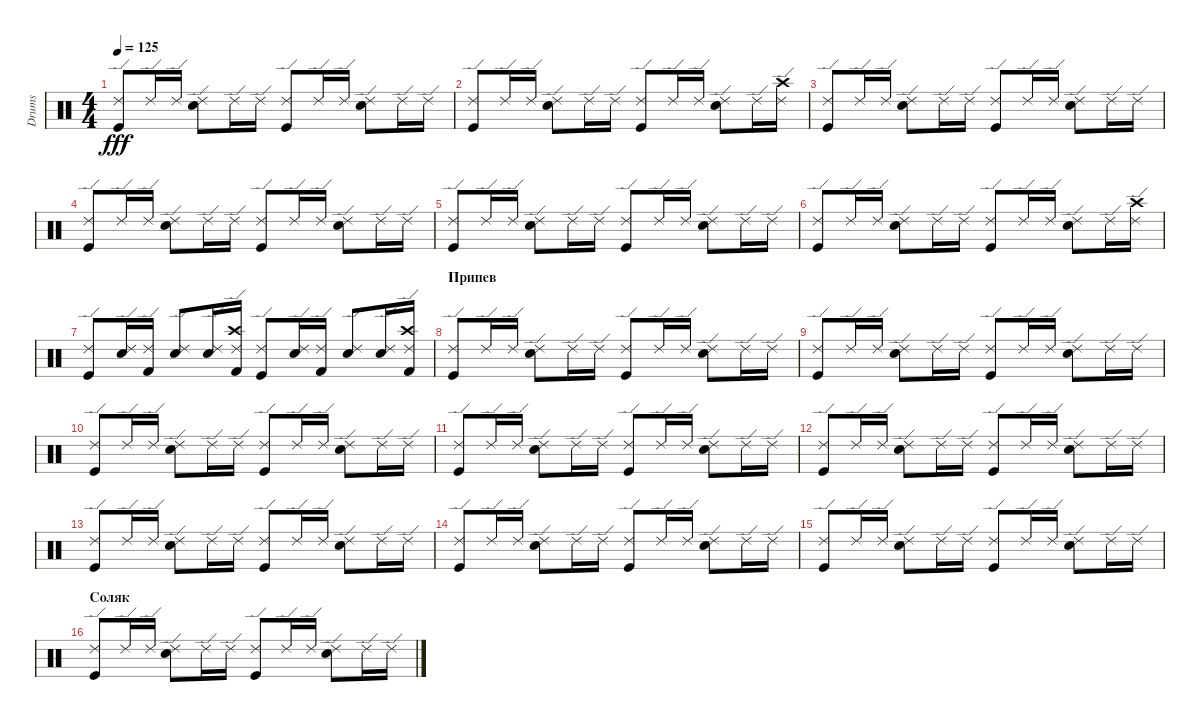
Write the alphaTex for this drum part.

\track ("Drums" "Drums") {instrument percussion}
\staff {score}
\articulation defaults
\ts (4 4)
\tempo 125
\clef neutral
\ks c
("Ride (edge) 2" "Kick (hit)").8{dy fff} "Ride (edge) 2".16 "Ride (edge) 2".16 ("Ride (edge) 2" "Snare (hit) 2").8 "Ride (edge) 2".16 "Ride (edge) 2".16 ("Ride (edge) 2" "Kick (hit)").8 "Ride (edge) 2".16 "Ride (edge) 2".16 ("Ride (edge) 2" "Snare (hit) 2").8 "Ride (edge) 2".16 "Ride (edge) 2".16 |
("Ride (edge) 2" "Kick (hit)").8 "Ride (edge) 2".16 "Ride (edge) 2".16 ("Ride (edge) 2" "Snare (hit) 2").8 "Ride (edge) 2".16 "Ride (edge) 2".16 ("Ride (edge) 2" "Kick (hit)").8 "Ride (edge) 2".16 "Ride (edge) 2".16 ("Ride (edge) 2" "Snare (hit) 2").8 "Ride (edge) 2".16 ("Ride (edge) 2" "Crash high (hit)").16 |
("Ride (edge) 2" "Kick (hit)").8 "Ride (edge) 2".16 "Ride (edge) 2".16 ("Ride (edge) 2" "Snare (hit) 2").8 "Ride (edge) 2".16 "Ride (edge) 2".16 ("Ride (edge) 2" "Kick (hit)").8 "Ride (edge) 2".16 "Ride (edge) 2".16 ("Ride (edge) 2" "Snare (hit) 2").8 "Ride (edge) 2".16 "Ride (edge) 2".16 |
("Ride (edge) 2" "Kick (hit)").8 "Ride (edge) 2".16 "Ride (edge) 2".16 ("Ride (edge) 2" "Snare (hit) 2").8 "Ride (edge) 2".16 "Ride (edge) 2".16 ("Ride (edge) 2" "Kick (hit)").8 "Ride (edge) 2".16 "Ride (edge) 2".16 ("Ride (edge) 2" "Snare (hit) 2").8 "Ride (edge) 2".16 "Ride (edge) 2".16 |
("Ride (edge) 2" "Kick (hit)").8 "Ride (edge) 2".16 "Ride (edge) 2".16 ("Ride (edge) 2" "Snare (hit) 2").8 "Ride (edge) 2".16 "Ride (edge) 2".16 ("Ride (edge) 2" "Kick (hit)").8 "Ride (edge) 2".16 "Ride (edge) 2".16 ("Ride (edge) 2" "Snare (hit) 2").8 "Ride (edge) 2".16 "Ride (edge) 2".16 |
("Ride (edge) 2" "Kick (hit)").8 "Ride (edge) 2".16 "Ride (edge) 2".16 ("Ride (edge) 2" "Snare (hit) 2").8 "Ride (edge) 2".16 "Ride (edge) 2".16 ("Ride (edge) 2" "Kick (hit)").8 "Ride (edge) 2".16 "Ride (edge) 2".16 ("Ride (edge) 2" "Snare (hit) 2").8 "Ride (edge) 2".16 ("Ride (edge) 2" "Crash high (hit)").16 |
("Ride (edge) 2" "Kick (hit)").8 ("Ride (edge) 2" "Metronome (bell)").16 ("Ride (edge) 2" "Kick (hit) 2").16 ("Ride (edge) 2" "Snare (hit) 2").8 ("Ride (edge) 2" "Metronome (bell)").16 ("Ride (edge) 2" "Crash high (hit)" "Kick (hit) 2").16 ("Ride (edge) 2" "Kick (hit)").8 ("Ride (edge) 2" "Metronome (bell)").16 ("Ride (edge) 2" "Kick (hit) 2").16 ("Ride (edge) 2" "Snare (hit) 2").8 ("Ride (edge) 2" "Metronome (bell)").16 ("Ride (edge) 2" "Crash high (hit)" "Kick (hit) 2").16 |
\section ("" "Припев")
("Ride (edge) 2" "Kick (hit)").8 "Ride (edge) 2".16 "Ride (edge) 2".16 ("Ride (edge) 2" "Snare (hit) 2").8 "Ride (edge) 2".16 "Ride (edge) 2".16 ("Ride (edge) 2" "Kick (hit)").8 "Ride (edge) 2".16 "Ride (edge) 2".16 ("Ride (edge) 2" "Snare (hit) 2").8 "Ride (edge) 2".16 "Ride (edge) 2".16 |
("Ride (edge) 2" "Kick (hit)").8 "Ride (edge) 2".16 "Ride (edge) 2".16 ("Ride (edge) 2" "Snare (hit) 2").8 "Ride (edge) 2".16 "Ride (edge) 2".16 ("Ride (edge) 2" "Kick (hit)").8 "Ride (edge) 2".16 "Ride (edge) 2".16 ("Ride (edge) 2" "Snare (hit) 2").8 "Ride (edge) 2".16 "Ride (edge) 2".16 |
("Ride (edge) 2" "Kick (hit)").8 "Ride (edge) 2".16 "Ride (edge) 2".16 ("Ride (edge) 2" "Snare (hit) 2").8 "Ride (edge) 2".16 "Ride (edge) 2".16 ("Ride (edge) 2" "Kick (hit)").8 "Ride (edge) 2".16 "Ride (edge) 2".16 ("Ride (edge) 2" "Snare (hit) 2").8 "Ride (edge) 2".16 "Ride (edge) 2".16 |
("Ride (edge) 2" "Kick (hit)").8 "Ride (edge) 2".16 "Ride (edge) 2".16 ("Ride (edge) 2" "Snare (hit) 2").8 "Ride (edge) 2".16 "Ride (edge) 2".16 ("Ride (edge) 2" "Kick (hit)").8 "Ride (edge) 2".16 "Ride (edge) 2".16 ("Ride (edge) 2" "Snare (hit) 2").8 "Ride (edge) 2".16 "Ride (edge) 2".16 |
("Ride (edge) 2" "Kick (hit)").8 "Ride (edge) 2".16 "Ride (edge) 2".16 ("Ride (edge) 2" "Snare (hit) 2").8 "Ride (edge) 2".16 "Ride (edge) 2".16 ("Ride (edge) 2" "Kick (hit)").8 "Ride (edge) 2".16 "Ride (edge) 2".16 ("Ride (edge) 2" "Snare (hit) 2").8 "Ride (edge) 2".16 "Ride (edge) 2".16 |
("Ride (edge) 2" "Kick (hit)").8 "Ride (edge) 2".16 "Ride (edge) 2".16 ("Ride (edge) 2" "Snare (hit) 2").8 "Ride (edge) 2".16 "Ride (edge) 2".16 ("Ride (edge) 2" "Kick (hit)").8 "Ride (edge) 2".16 "Ride (edge) 2".16 ("Ride (edge) 2" "Snare (hit) 2").8 "Ride (edge) 2".16 "Ride (edge) 2".16 |
("Ride (edge) 2" "Kick (hit)").8 "Ride (edge) 2".16 "Ride (edge) 2".16 ("Ride (edge) 2" "Snare (hit) 2").8 "Ride (edge) 2".16 "Ride (edge) 2".16 ("Ride (edge) 2" "Kick (hit)").8 "Ride (edge) 2".16 "Ride (edge) 2".16 ("Ride (edge) 2" "Snare (hit) 2").8 "Ride (edge) 2".16 "Ride (edge) 2".16 |
("Ride (edge) 2" "Kick (hit)").8 "Ride (edge) 2".16 "Ride (edge) 2".16 ("Ride (edge) 2" "Snare (hit) 2").8 "Ride (edge) 2".16 "Ride (edge) 2".16 ("Ride (edge) 2" "Kick (hit)").8 "Ride (edge) 2".16 "Ride (edge) 2".16 ("Ride (edge) 2" "Snare (hit) 2").8 "Ride (edge) 2".16 "Ride (edge) 2".16 |
\section ("" "Соляк")
("Ride (edge) 2" "Kick (hit)").8 "Ride (edge) 2".16 "Ride (edge) 2".16 ("Ride (edge) 2" "Snare (hit) 2").8 "Ride (edge) 2".16 "Ride (edge) 2".16 ("Ride (edge) 2" "Kick (hit)").8 "Ride (edge) 2".16 "Ride (edge) 2".16 ("Ride (edge) 2" "Snare (hit) 2").8 "Ride (edge) 2".16 "Ride (edge) 2".16
